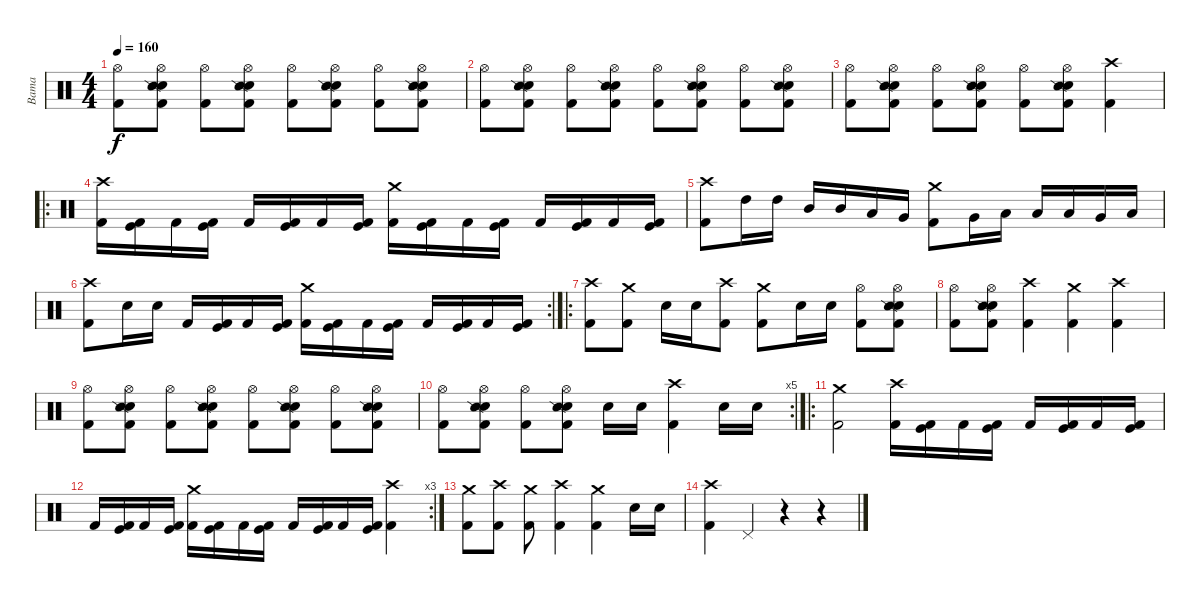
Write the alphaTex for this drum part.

\track ("Bama" "Bama") {instrument percussion}
\staff {score}
\articulation defaults
\ts (4 4)
\tempo 160
\clef neutral
\ks c
("Hi-Hat (open)" "Kick (hit) 2").8{dy f} ("Hi-Hat (open)" "Electric Snare (hit)" "Snare (side stick) 2" "Kick (hit) 2").8 ("Hi-Hat (open)" "Kick (hit) 2").8 ("Hi-Hat (open)" "Electric Snare (hit)" "Snare (side stick) 2" "Kick (hit) 2").8 ("Hi-Hat (open)" "Kick (hit) 2").8 ("Hi-Hat (open)" "Electric Snare (hit)" "Snare (side stick) 2" "Kick (hit) 2").8 ("Hi-Hat (open)" "Kick (hit) 2").8 ("Hi-Hat (open)" "Electric Snare (hit)" "Snare (side stick) 2" "Kick (hit) 2").8 |
("Hi-Hat (open)" "Kick (hit) 2").8 ("Hi-Hat (open)" "Electric Snare (hit)" "Snare (side stick) 2" "Kick (hit) 2").8 ("Hi-Hat (open)" "Kick (hit) 2").8 ("Hi-Hat (open)" "Electric Snare (hit)" "Snare (side stick) 2" "Kick (hit) 2").8 ("Hi-Hat (open)" "Kick (hit) 2").8 ("Hi-Hat (open)" "Electric Snare (hit)" "Snare (side stick) 2" "Kick (hit) 2").8 ("Hi-Hat (open)" "Kick (hit) 2").8 ("Hi-Hat (open)" "Electric Snare (hit)" "Snare (side stick) 2" "Kick (hit) 2").8 |
("Hi-Hat (open)" "Kick (hit) 2").8 ("Hi-Hat (open)" "Electric Snare (hit)" "Snare (side stick) 2" "Kick (hit) 2").8 ("Hi-Hat (open)" "Kick (hit) 2").8 ("Hi-Hat (open)" "Electric Snare (hit)" "Snare (side stick) 2" "Kick (hit) 2").8 ("Hi-Hat (open)" "Kick (hit) 2").8 ("Hi-Hat (open)" "Electric Snare (hit)" "Snare (side stick) 2" "Kick (hit) 2").8 ("Crash high (hit)" "Kick (hit) 2").4 |
\ro
("Crash high (hit)" "Kick (hit) 2").16 ("Kick (hit)" "Kick (hit) 2").16 "Kick (hit) 2".16 ("Kick (hit)" "Kick (hit) 2").16 "Kick (hit) 2".16 ("Kick (hit)" "Kick (hit) 2").16 "Kick (hit) 2".16 ("Kick (hit)" "Kick (hit) 2").16 ("Crash medium (hit)" "Kick (hit) 2").16 ("Kick (hit)" "Kick (hit) 2").16 "Kick (hit) 2".16 ("Kick (hit)" "Kick (hit) 2").16 "Kick (hit) 2".16 ("Kick (hit)" "Kick (hit) 2").16 "Kick (hit) 2".16 ("Kick (hit)" "Kick (hit) 2").16 |
("Crash high (hit)" "Kick (hit) 2").8 "High Tom (hit)".16 "High Tom (hit)".16 "Mid Tom (hit)".16 "Mid Tom (hit)".16 "Low Tom (hit)".16 "Very Low Tom (hit)".16 ("Crash medium (hit)" "Kick (hit) 2").8 "Very Low Tom (hit)".16 "Low Floor Tom (hit)".16 "Low Tom (hit)".16 "Low Tom (hit)".16 "Very Low Tom (hit)".16 "Low Floor Tom (hit)".16 |
\rc 2
("Crash high (hit)" "Kick (hit) 2").8 "Electric Snare (hit)".16 "Electric Snare (hit)".16 "Kick (hit) 2".16 ("Kick (hit)" "Kick (hit) 2").16 "Kick (hit) 2".16 ("Kick (hit)" "Kick (hit) 2").16 ("Crash medium (hit)" "Kick (hit) 2").16 ("Kick (hit)" "Kick (hit) 2").16 "Kick (hit) 2".16 ("Kick (hit)" "Kick (hit) 2").16 "Kick (hit) 2".16 ("Kick (hit)" "Kick (hit) 2").16 "Kick (hit) 2".16 ("Kick (hit)" "Kick (hit) 2").16 |
\ro
("Crash high (hit)" "Kick (hit) 2").8 ("Crash medium (hit)" "Kick (hit) 2").8 "Electric Snare (hit)".16 "Electric Snare (hit)".16 ("Crash high (hit)" "Kick (hit) 2").8 ("Crash medium (hit)" "Kick (hit) 2").8 "Electric Snare (hit)".16 "Electric Snare (hit)".16 ("Hi-Hat (open)" "Kick (hit) 2").8 ("Hi-Hat (open)" "Electric Snare (hit)" "Snare (side stick) 2" "Kick (hit) 2").8 |
("Hi-Hat (open)" "Kick (hit) 2").8 ("Hi-Hat (open)" "Electric Snare (hit)" "Snare (side stick) 2" "Kick (hit) 2").8 ("Crash high (hit)" "Kick (hit) 2").4 ("Crash medium (hit)" "Kick (hit) 2").4 ("Crash high (hit)" "Kick (hit) 2").4 |
("Hi-Hat (open)" "Kick (hit) 2").8 ("Hi-Hat (open)" "Electric Snare (hit)" "Snare (side stick) 2" "Kick (hit) 2").8 ("Hi-Hat (open)" "Kick (hit) 2").8 ("Hi-Hat (open)" "Electric Snare (hit)" "Snare (side stick) 2" "Kick (hit) 2").8 ("Hi-Hat (open)" "Kick (hit) 2").8 ("Hi-Hat (open)" "Electric Snare (hit)" "Snare (side stick) 2" "Kick (hit) 2").8 ("Hi-Hat (open)" "Kick (hit) 2").8 ("Hi-Hat (open)" "Electric Snare (hit)" "Snare (side stick) 2" "Kick (hit) 2").8 |
\rc 5
("Hi-Hat (open)" "Kick (hit) 2").8 ("Hi-Hat (open)" "Electric Snare (hit)" "Snare (side stick) 2" "Kick (hit) 2").8 ("Hi-Hat (open)" "Kick (hit) 2").8 ("Hi-Hat (open)" "Electric Snare (hit)" "Snare (side stick) 2" "Kick (hit) 2").8 "Electric Snare (hit)".16 "Electric Snare (hit)".16 ("Crash high (hit)" "Kick (hit) 2").4 "Electric Snare (hit)".16 "Electric Snare (hit)".16 |
\ro
("Crash medium (hit)" "Kick (hit) 2").2 ("Crash high (hit)" "Kick (hit) 2").16 ("Kick (hit)" "Kick (hit) 2").16 "Kick (hit) 2".16 ("Kick (hit)" "Kick (hit) 2").16 "Kick (hit) 2".16 ("Kick (hit)" "Kick (hit) 2").16 "Kick (hit) 2".16 ("Kick (hit)" "Kick (hit) 2").16 |
\rc 3 "Kick (hit) 2".16
("Kick (hit)" "Kick (hit) 2").16 "Kick (hit) 2".16 ("Kick (hit)" "Kick (hit) 2").16 ("Crash medium (hit)" "Kick (hit) 2").16 ("Kick (hit)" "Kick (hit) 2").16 "Kick (hit) 2".16 ("Kick (hit)" "Kick (hit) 2").16 "Kick (hit) 2".16 ("Kick (hit)" "Kick (hit) 2").16 "Kick (hit) 2".16 ("Kick (hit)" "Kick (hit) 2").16 ("Crash high (hit)" "Kick (hit) 2").4 |
("Crash medium (hit)" "Kick (hit) 2").8 ("Crash high (hit)" "Kick (hit) 2").8 ("Crash medium (hit)" "Kick (hit) 2").8 ("Crash high (hit)" "Kick (hit) 2").4 ("Crash medium (hit)" "Kick (hit) 2").4 "Electric Snare (hit)".16 "Electric Snare (hit)".16 |
("Crash high (hit)" "Kick (hit) 2").4 "Pedal Hi-Hat (hit)".4 r.4 r.4
